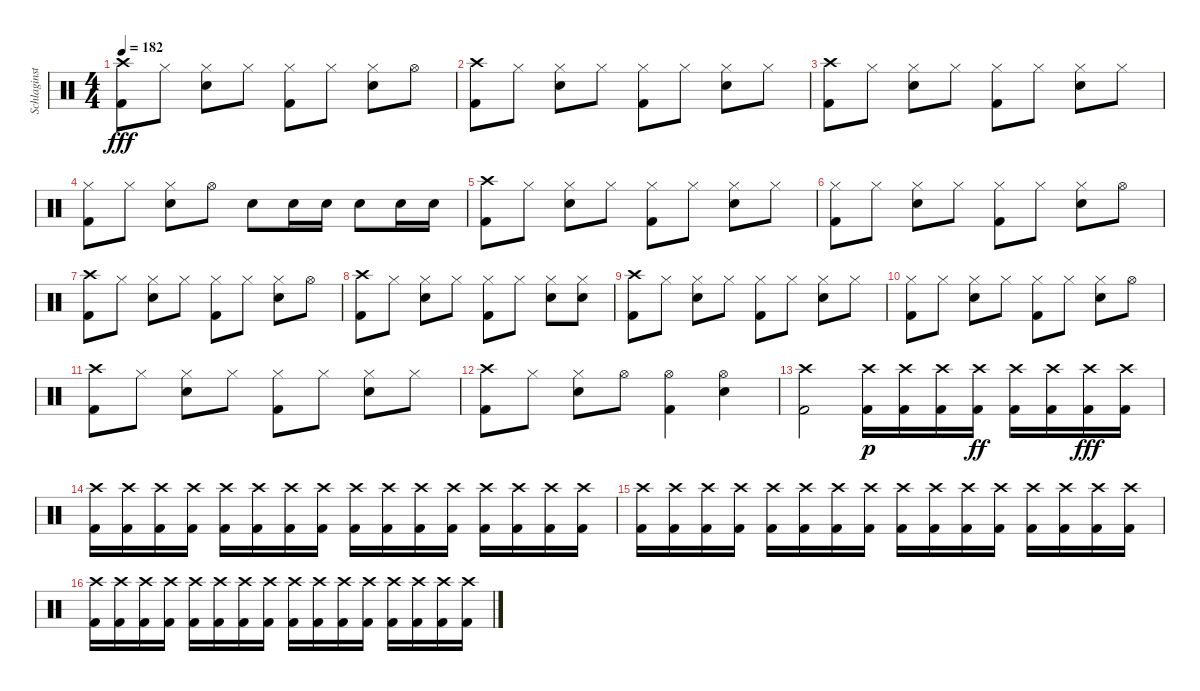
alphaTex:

\track ("Schlaginstrumente - Auswahl" "Schlaginst") {instrument percussion}
\staff {score}
\articulation defaults
\ts (4 4)
\tempo 182
\clef neutral
\ks c
("Kick (hit) 2" "Crash high (hit)").8{dy fff} "Hi-Hat (closed)".8 ("Snare (hit) 2" "Hi-Hat (closed)").8 "Hi-Hat (closed)".8 ("Kick (hit) 2" "Hi-Hat (closed)").8 "Hi-Hat (closed)".8 ("Snare (hit) 2" "Hi-Hat (closed)").8 "Hi-Hat (open)".8 |
("Kick (hit) 2" "Crash high (hit)").8 "Hi-Hat (closed)".8 ("Snare (hit) 2" "Hi-Hat (closed)").8 "Hi-Hat (closed)".8 ("Kick (hit) 2" "Hi-Hat (closed)").8 "Hi-Hat (closed)".8 ("Snare (hit) 2" "Hi-Hat (closed)").8 "Hi-Hat (closed)".8 |
("Kick (hit) 2" "Crash high (hit)").8 "Hi-Hat (closed)".8 ("Snare (hit) 2" "Hi-Hat (closed)").8 "Hi-Hat (closed)".8 ("Kick (hit) 2" "Hi-Hat (closed)").8 "Hi-Hat (closed)".8 ("Snare (hit) 2" "Hi-Hat (closed)").8 "Hi-Hat (closed)".8 |
("Kick (hit) 2" "Hi-Hat (closed)").8 "Hi-Hat (closed)".8 ("Snare (hit) 2" "Hi-Hat (closed)").8 "Hi-Hat (open)".8 "Snare (hit) 2".8 "Snare (hit) 2".16 "Snare (hit) 2".16 "Snare (hit) 2".8 "Snare (hit) 2".16 "Snare (hit) 2".16 |
("Kick (hit) 2" "Crash high (hit)").8 "Hi-Hat (closed)".8 ("Snare (hit) 2" "Hi-Hat (closed)").8 "Hi-Hat (closed)".8 ("Kick (hit) 2" "Hi-Hat (closed)").8 "Hi-Hat (closed)".8 ("Snare (hit) 2" "Hi-Hat (closed)").8 "Hi-Hat (closed)".8 |
("Kick (hit) 2" "Hi-Hat (closed)").8 "Hi-Hat (closed)".8 ("Snare (hit) 2" "Hi-Hat (closed)").8 "Hi-Hat (closed)".8 ("Kick (hit) 2" "Hi-Hat (closed)").8 "Hi-Hat (closed)".8 ("Snare (hit) 2" "Hi-Hat (closed)").8 "Hi-Hat (open)".8 |
("Kick (hit) 2" "Crash high (hit)").8 "Hi-Hat (closed)".8 ("Snare (hit) 2" "Hi-Hat (closed)").8 "Hi-Hat (closed)".8 ("Kick (hit) 2" "Hi-Hat (closed)").8 "Hi-Hat (closed)".8 ("Snare (hit) 2" "Hi-Hat (closed)").8 "Hi-Hat (open)".8 |
("Kick (hit) 2" "Crash high (hit)").8 "Hi-Hat (closed)".8 ("Snare (hit) 2" "Hi-Hat (closed)").8 "Hi-Hat (closed)".8 ("Kick (hit) 2" "Hi-Hat (closed)").8 "Hi-Hat (closed)".8 ("Snare (hit) 2" "Hi-Hat (closed)").8 ("Snare (hit) 2" "Hi-Hat (closed)").8 |
("Kick (hit) 2" "Crash high (hit)").8 "Hi-Hat (closed)".8 ("Snare (hit) 2" "Hi-Hat (closed)").8 "Hi-Hat (closed)".8 ("Kick (hit) 2" "Hi-Hat (closed)").8 "Hi-Hat (closed)".8 ("Snare (hit) 2" "Hi-Hat (closed)").8 "Hi-Hat (closed)".8 |
("Kick (hit) 2" "Hi-Hat (closed)").8 "Hi-Hat (closed)".8 ("Snare (hit) 2" "Hi-Hat (closed)").8 "Hi-Hat (closed)".8 ("Kick (hit) 2" "Hi-Hat (closed)").8 "Hi-Hat (closed)".8 ("Snare (hit) 2" "Hi-Hat (closed)").8 "Hi-Hat (open)".8 |
("Kick (hit) 2" "Crash high (hit)").8 "Hi-Hat (closed)".8 ("Snare (hit) 2" "Hi-Hat (closed)").8 "Hi-Hat (closed)".8 ("Kick (hit) 2" "Hi-Hat (closed)").8 "Hi-Hat (closed)".8 ("Snare (hit) 2" "Hi-Hat (closed)").8 "Hi-Hat (closed)".8 |
("Kick (hit) 2" "Crash high (hit)").8 "Hi-Hat (closed)".8 ("Snare (hit) 2" "Hi-Hat (closed)").8 "Hi-Hat (open)".8 ("Kick (hit) 2" "Hi-Hat (open)").4 ("Snare (hit) 2" "Hi-Hat (open)").4 |
("Kick (hit) 2" "Crash high (hit)").2 ("Kick (hit) 2" "Crash high (hit)").16{dy p} ("Kick (hit) 2" "Crash high (hit)").16 ("Kick (hit) 2" "Crash high (hit)").16 ("Kick (hit) 2" "Crash high (hit)").16{dy ff} ("Kick (hit) 2" "Crash high (hit)").16 ("Kick (hit) 2" "Crash high (hit)").16 ("Kick (hit) 2" "Crash high (hit)").16{dy fff} ("Kick (hit) 2" "Crash high (hit)").16 |
("Kick (hit) 2" "Crash high (hit)").16 ("Kick (hit) 2" "Crash high (hit)").16 ("Kick (hit) 2" "Crash high (hit)").16 ("Kick (hit) 2" "Crash high (hit)").16 ("Kick (hit) 2" "Crash high (hit)").16 ("Kick (hit) 2" "Crash high (hit)").16 ("Kick (hit) 2" "Crash high (hit)").16 ("Kick (hit) 2" "Crash high (hit)").16 ("Kick (hit) 2" "Crash high (hit)").16 ("Kick (hit) 2" "Crash high (hit)").16 ("Kick (hit) 2" "Crash high (hit)").16 ("Kick (hit) 2" "Crash high (hit)").16 ("Kick (hit) 2" "Crash high (hit)").16 ("Kick (hit) 2" "Crash high (hit)").16 ("Kick (hit) 2" "Crash high (hit)").16 ("Kick (hit) 2" "Crash high (hit)").16 |
("Kick (hit) 2" "Crash high (hit)").16 ("Kick (hit) 2" "Crash high (hit)").16 ("Kick (hit) 2" "Crash high (hit)").16 ("Kick (hit) 2" "Crash high (hit)").16 ("Kick (hit) 2" "Crash high (hit)").16 ("Kick (hit) 2" "Crash high (hit)").16 ("Kick (hit) 2" "Crash high (hit)").16 ("Kick (hit) 2" "Crash high (hit)").16 ("Kick (hit) 2" "Crash high (hit)").16 ("Kick (hit) 2" "Crash high (hit)").16 ("Kick (hit) 2" "Crash high (hit)").16 ("Kick (hit) 2" "Crash high (hit)").16 ("Kick (hit) 2" "Crash high (hit)").16 ("Kick (hit) 2" "Crash high (hit)").16 ("Kick (hit) 2" "Crash high (hit)").16 ("Kick (hit) 2" "Crash high (hit)").16 |
("Kick (hit) 2" "Crash high (hit)").16 ("Kick (hit) 2" "Crash high (hit)").16 ("Kick (hit) 2" "Crash high (hit)").16 ("Kick (hit) 2" "Crash high (hit)").16 ("Kick (hit) 2" "Crash high (hit)").16 ("Kick (hit) 2" "Crash high (hit)").16 ("Kick (hit) 2" "Crash high (hit)").16 ("Kick (hit) 2" "Crash high (hit)").16 ("Kick (hit) 2" "Crash high (hit)").16 ("Kick (hit) 2" "Crash high (hit)").16 ("Kick (hit) 2" "Crash high (hit)").16 ("Kick (hit) 2" "Crash high (hit)").16 ("Kick (hit) 2" "Crash high (hit)").16 ("Kick (hit) 2" "Crash high (hit)").16 ("Kick (hit) 2" "Crash high (hit)").16 ("Kick (hit) 2" "Crash high (hit)").16
